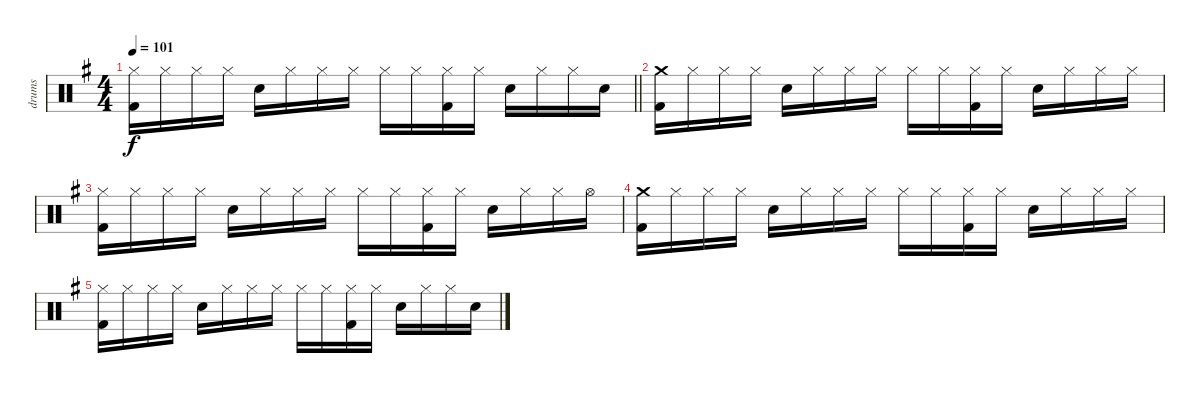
\track ("drums" "drums") {instrument percussion}
\staff {score}
\articulation defaults
\ts (4 4)
\tempo 101
\clef neutral
\barLineRight lightlight
\ks eminor
("Hi-Hat (closed)" "Kick (hit) 2").16{dy f} "Hi-Hat (closed)".16 "Hi-Hat (closed)".16 "Hi-Hat (closed)".16 "Snare (hit) 2".16 "Hi-Hat (closed)".16 "Hi-Hat (closed)".16 "Hi-Hat (closed)".16 "Hi-Hat (closed)".16 "Hi-Hat (closed)".16 ("Hi-Hat (closed)" "Kick (hit) 2").16 "Hi-Hat (closed)".16 "Snare (hit) 2".16 "Hi-Hat (closed)".16 "Hi-Hat (closed)".16 "Snare (hit) 2".16 |
("Crash medium (hit)" "Kick (hit) 2").16 "Hi-Hat (closed)".16 "Hi-Hat (closed)".16 "Hi-Hat (closed)".16 "Snare (hit) 2".16 "Hi-Hat (closed)".16 "Hi-Hat (closed)".16 "Hi-Hat (closed)".16 "Hi-Hat (closed)".16 "Hi-Hat (closed)".16 ("Hi-Hat (closed)" "Kick (hit) 2").16 "Hi-Hat (closed)".16 "Snare (hit) 2".16 "Hi-Hat (closed)".16 "Hi-Hat (closed)".16 "Hi-Hat (closed)".16 |
("Hi-Hat (closed)" "Kick (hit) 2").16 "Hi-Hat (closed)".16 "Hi-Hat (closed)".16 "Hi-Hat (closed)".16 "Snare (hit) 2".16 "Hi-Hat (closed)".16 "Hi-Hat (closed)".16 "Hi-Hat (closed)".16 "Hi-Hat (closed)".16 "Hi-Hat (closed)".16 ("Hi-Hat (closed)" "Kick (hit) 2").16 "Hi-Hat (closed)".16 "Snare (hit) 2".16 "Hi-Hat (closed)".16 "Hi-Hat (closed)".16 "Hi-Hat (open)".16 |
("Crash medium (hit)" "Kick (hit) 2").16 "Hi-Hat (closed)".16 "Hi-Hat (closed)".16 "Hi-Hat (closed)".16 "Snare (hit) 2".16 "Hi-Hat (closed)".16 "Hi-Hat (closed)".16 "Hi-Hat (closed)".16 "Hi-Hat (closed)".16 "Hi-Hat (closed)".16 ("Hi-Hat (closed)" "Kick (hit) 2").16 "Hi-Hat (closed)".16 "Snare (hit) 2".16 "Hi-Hat (closed)".16 "Hi-Hat (closed)".16 "Hi-Hat (closed)".16 |
("Hi-Hat (closed)" "Kick (hit) 2").16 "Hi-Hat (closed)".16 "Hi-Hat (closed)".16 "Hi-Hat (closed)".16 "Snare (hit) 2".16 "Hi-Hat (closed)".16 "Hi-Hat (closed)".16 "Hi-Hat (closed)".16 "Hi-Hat (closed)".16 "Hi-Hat (closed)".16 ("Hi-Hat (closed)" "Kick (hit) 2").16 "Hi-Hat (closed)".16 "Snare (hit) 2".16 "Hi-Hat (closed)".16 "Hi-Hat (closed)".16 "Snare (hit) 2".16
